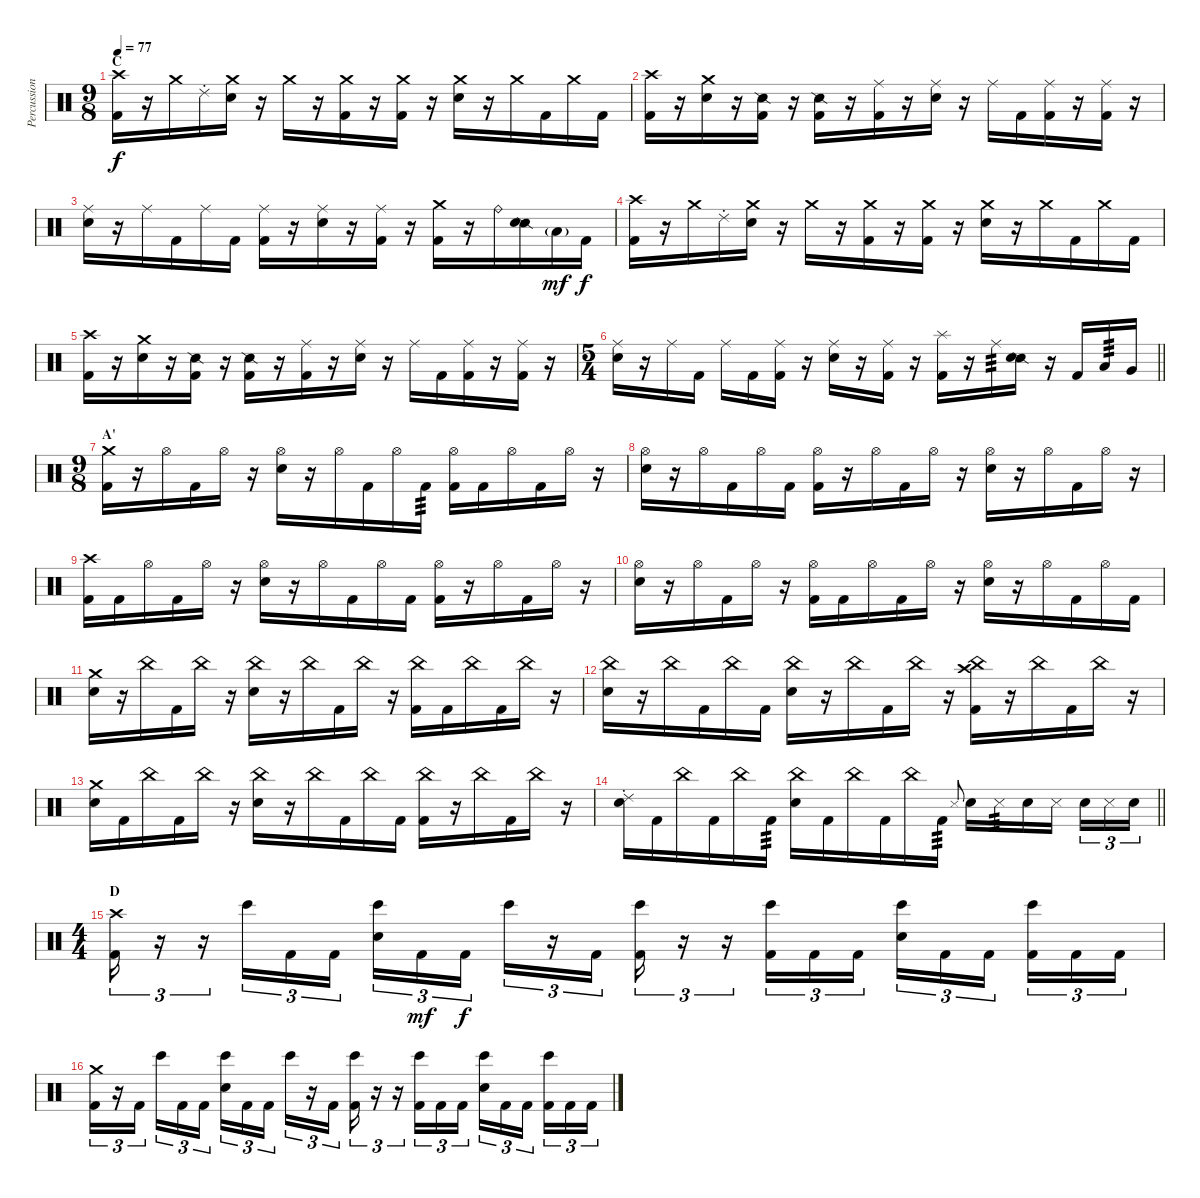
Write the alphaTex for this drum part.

\track ("Percussion" "Percussion") {instrument percussion}
\staff {score}
\articulation defaults
\ts (9 8)
\section ("" "C")
\tempo 77
\clef neutral
\ks c
("Crash high (hit)" "Kick (hit) 2").16{dy f} r.16 "Crash medium (hit)".16 "Ride (choke) 2".16 ("Crash medium (hit)" "Snare (hit) 2").16 r.16 "Crash medium (hit)".16 r.16 ("Crash medium (hit)" "Kick (hit) 2").16 r.16 ("Crash medium (hit)" "Kick (hit) 2").16 r.16 ("Crash medium (hit)" "Snare (hit) 2").16 r.16 "Crash medium (hit)".16 "Kick (hit) 2".16 "Crash medium (hit)".16 "Kick (hit) 2".16 |
("Crash high (hit)" "Kick (hit) 2").16 r.16 ("Crash medium (hit)" "Snare (hit) 2").16 r.16 ("Snare (side stick) 2" "Kick (hit) 2").16 r.16 ("Snare (side stick) 2" "Kick (hit) 2").16 r.16 ("Ride (middle)" "Kick (hit) 2").16 r.16 ("Ride (middle)" "Snare (hit) 2").16 r.16 "Ride (middle)".16 "Kick (hit) 2".16 ("Ride (middle)" "Kick (hit) 2").16 r.16 ("Ride (middle)" "Kick (hit) 2").16 r.16 |
("Ride (middle)" "Snare (hit) 2").16 r.16 "Ride (middle)".16 "Kick (hit) 2".16 "Ride (middle)".16 "Kick (hit) 2".16 ("Ride (middle)" "Kick (hit) 2").16 r.16 ("Ride (middle)" "Snare (hit) 2").16 r.16 ("Ride (middle)" "Kick (hit) 2").16 r.16 ("Crash medium (hit)" "Kick (hit) 2").16 r.16 "Ride (bell)".16 ("Snare (side stick) 2" "Snare (hit) 2").16 "Low Tom (hit)"{g}.16{dy mf} "Kick (hit) 2".16{dy f} |
("Crash high (hit)" "Kick (hit) 2").16 r.16 "Crash medium (hit)".16 "Ride (choke) 2".16 ("Crash medium (hit)" "Snare (hit) 2").16 r.16 "Crash medium (hit)".16 r.16 ("Crash medium (hit)" "Kick (hit) 2").16 r.16 ("Crash medium (hit)" "Kick (hit) 2").16 r.16 ("Crash medium (hit)" "Snare (hit) 2").16 r.16 "Crash medium (hit)".16 "Kick (hit) 2".16 "Crash medium (hit)".16 "Kick (hit) 2".16 |
("Crash high (hit)" "Kick (hit) 2").16 r.16 ("Crash medium (hit)" "Snare (hit) 2").16 r.16 ("Snare (side stick) 2" "Kick (hit) 2").16 r.16 ("Snare (side stick) 2" "Kick (hit) 2").16 r.16 ("Ride (middle)" "Kick (hit) 2").16 r.16 ("Ride (middle)" "Snare (hit) 2").16 r.16 "Ride (middle)".16 "Kick (hit) 2".16 ("Ride (middle)" "Kick (hit) 2").16 r.16 ("Ride (middle)" "Kick (hit) 2").16 r.16 |
\ts (5 4)
\barLineRight lightlight
("Ride (middle)" "Snare (hit) 2").16 r.16 "Ride (middle)".16 "Kick (hit) 2".16 "Ride (middle)".16 "Kick (hit) 2".16 ("Ride (middle)" "Kick (hit) 2").16 r.16 ("Ride (middle)" "Snare (hit) 2").16 r.16 ("Ride (middle)" "Kick (hit) 2").16 r.16 ("Splash (hit)" "Kick (hit) 2").16 r.16 "Ride (middle)".16{tp 3} ("Snare (side stick) 2" "Snare (hit) 2").16 r.16 "Kick (hit) 2".16 "Low Tom (hit)".16{tp 3} "Very Low Tom (hit)".16 |
\ts (9 8)
\section ("" "A'")
("Crash medium (hit)" "Kick (hit) 2").16 r.16 "Hi-Hat (open)".16 "Kick (hit) 2".16 "Hi-Hat (open)".16 r.16 ("Hi-Hat (open)" "Snare (hit) 2").16 r.16 "Hi-Hat (open)".16 "Kick (hit) 2".16 "Hi-Hat (open)".16 "Kick (hit) 2".16{tp 3} ("Hi-Hat (open)" "Kick (hit) 2").16 "Kick (hit) 2".16 "Hi-Hat (open)".16 "Kick (hit) 2".16 "Hi-Hat (open)".16 r.16 |
("Hi-Hat (open)" "Snare (hit) 2").16 r.16 "Hi-Hat (open)".16 "Kick (hit) 2".16 "Hi-Hat (open)".16 "Kick (hit) 2".16 ("Hi-Hat (open)" "Kick (hit) 2").16 r.16 "Hi-Hat (open)".16 "Kick (hit) 2".16 "Hi-Hat (open)".16 r.16 ("Hi-Hat (open)" "Snare (hit) 2").16 r.16 "Hi-Hat (open)".16 "Kick (hit) 2".16 "Hi-Hat (open)".16 r.16 |
("Crash high (hit)" "Kick (hit) 2").16 "Kick (hit) 2".16 "Hi-Hat (open)".16 "Kick (hit) 2".16 "Hi-Hat (open)".16 r.16 ("Hi-Hat (open)" "Snare (hit) 2").16 r.16 "Hi-Hat (open)".16 "Kick (hit) 2".16 "Hi-Hat (open)".16 "Kick (hit) 2".16 ("Hi-Hat (open)" "Kick (hit) 2").16 r.16 "Hi-Hat (open)".16 "Kick (hit) 2".16 "Hi-Hat (open)".16 r.16 |
("Hi-Hat (open)" "Snare (hit) 2").16 r.16 "Hi-Hat (open)".16 "Kick (hit) 2".16 "Hi-Hat (open)".16 r.16 ("Hi-Hat (open)" "Kick (hit) 2").16 "Kick (hit) 2".16 "Hi-Hat (open)".16 "Kick (hit) 2".16 "Hi-Hat (open)".16 r.16 ("Hi-Hat (open)" "Snare (hit) 2").16 r.16 "Hi-Hat (open)".16 "Kick (hit) 2".16 "Hi-Hat (open)".16 "Kick (hit) 2".16 |
("Crash medium (hit)" "Snare (hit) 2").16 r.16 "China (hit)".16 "Kick (hit) 2".16 "China (hit)".16 r.16 ("China (hit)" "Snare (hit) 2").16 r.16 "China (hit)".16 "Kick (hit) 2".16 "China (hit)".16 r.16 ("China (hit)" "Kick (hit) 2").16 "Kick (hit) 2".16 "China (hit)".16 "Kick (hit) 2".16 "China (hit)".16 r.16 |
("China (hit)" "Snare (hit) 2").16 r.16 "China (hit)".16 "Kick (hit) 2".16 "China (hit)".16 "Kick (hit) 2".16 ("China (hit)" "Snare (hit) 2").16 r.16 "China (hit)".16 "Kick (hit) 2".16 "China (hit)".16 r.16 ("China (hit)" "Crash high (hit)" "Kick (hit) 2").16 r.16 "China (hit)".16 "Kick (hit) 2".16 "China (hit)".16 r.16 |
("Crash medium (hit)" "Snare (hit) 2").16 "Kick (hit) 2".16 "China (hit)".16 "Kick (hit) 2".16 "China (hit)".16 r.16 ("China (hit)" "Snare (hit) 2").16 r.16 "China (hit)".16 "Kick (hit) 2".16 "China (hit)".16 "Kick (hit) 2".16 ("China (hit)" "Kick (hit) 2").16 r.16 "China (hit)".16 "Kick (hit) 2".16 "China (hit)".16 r.16 |
\barLineRight lightlight
("Ride (choke) 2" "Snare (hit) 2").16 "Kick (hit) 2".16 "China (hit)".16 "Kick (hit) 2".16 "China (hit)".16 "Kick (hit) 2".16{tp 3} ("China (hit)" "Snare (hit) 2").16 "Kick (hit) 2".16 "China (hit)".16 "Kick (hit) 2".16 "China (hit)".16 "Kick (hit) 2".16{tp 3} "Metronome (hit)".8{gr onbeat} "Snare (hit) 2".16 "Metronome (hit)".16{tp 3} "Snare (hit) 2".16 "Metronome (hit)".16{beam splitsecondary} "Snare (hit) 2".16{tu (3 2)} "Metronome (hit)".16{tu (3 2)} "Snare (hit) 2".16{tu (3 2)} |
\ts (4 4)
\section ("" "D")
("Crash high (hit)" "Kick (hit) 2").16{tu (3 2)} r.16{tu (3 2)} r.16{tu (3 2)} "Bongo High (hit)".16{tu (3 2)} "Kick (hit) 2".16{tu (3 2)} "Kick (hit) 2".16{tu (3 2)} ("Bongo High (hit)" "Snare (hit) 2").16{tu (3 2)} "Kick (hit) 2".16{tu (3 2) dy mf} "Kick (hit) 2".16{tu (3 2) dy f beam splitsecondary} "Bongo High (hit)".16{tu (3 2)} r.16{tu (3 2)} "Kick (hit) 2".16{tu (3 2)} ("Bongo High (hit)" "Kick (hit) 2").16{tu (3 2)} r.16{tu (3 2)} r.16{tu (3 2)} ("Bongo High (hit)" "Kick (hit) 2").16{tu (3 2)} "Kick (hit) 2".16{tu (3 2)} "Kick (hit) 2".16{tu (3 2)} ("Bongo High (hit)" "Snare (hit) 2").16{tu (3 2)} "Kick (hit) 2".16{tu (3 2)} "Kick (hit) 2".16{tu (3 2) beam splitsecondary} ("Bongo High (hit)" "Kick (hit) 2").16{tu (3 2)} "Kick (hit) 2".16{tu (3 2)} "Kick (hit) 2".16{tu (3 2)} |
("Crash medium (hit)" "Kick (hit) 2").16{tu (3 2)} r.16{tu (3 2)} "Kick (hit) 2".16{tu (3 2) beam splitsecondary} "Bongo High (hit)".16{tu (3 2)} "Kick (hit) 2".16{tu (3 2)} "Kick (hit) 2".16{tu (3 2)} ("Bongo High (hit)" "Snare (hit) 2").16{tu (3 2)} "Kick (hit) 2".16{tu (3 2)} "Kick (hit) 2".16{tu (3 2) beam splitsecondary} "Bongo High (hit)".16{tu (3 2)} r.16{tu (3 2)} "Kick (hit) 2".16{tu (3 2)} ("Bongo High (hit)" "Kick (hit) 2").16{tu (3 2)} r.16{tu (3 2)} r.16{tu (3 2)} ("Bongo High (hit)" "Kick (hit) 2").16{tu (3 2)} "Kick (hit) 2".16{tu (3 2)} "Kick (hit) 2".16{tu (3 2)} ("Bongo High (hit)" "Snare (hit) 2").16{tu (3 2)} "Kick (hit) 2".16{tu (3 2)} "Kick (hit) 2".16{tu (3 2) beam splitsecondary} ("Bongo High (hit)" "Kick (hit) 2").16{tu (3 2)} "Kick (hit) 2".16{tu (3 2)} "Kick (hit) 2".16{tu (3 2)}
